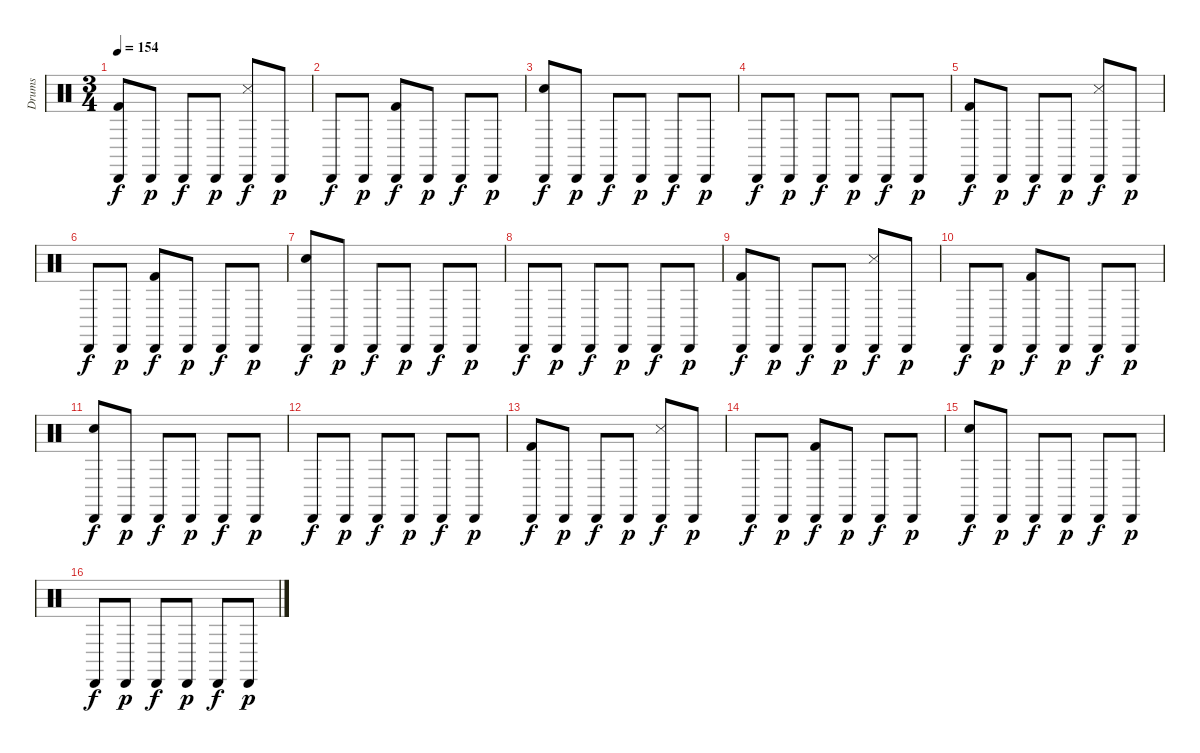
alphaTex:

\track ("Drums" "Drums") {instrument percussion}
\staff {score}
\articulation defaults
\ts (3 4)
\tempo 154
\clef neutral
\ks c
("Cabasa (hit)" "Kick (hit) 2").8{dy f} "Cabasa (hit)".8{dy p} "Cabasa (hit)".8{dy f} "Cabasa (hit)".8{dy p} ("Cabasa (hit)" "Snare (side stick) 3").8{dy f} "Cabasa (hit)".8{dy p} |
"Cabasa (hit)".8{dy f} "Cabasa (hit)".8{dy p} ("Cabasa (hit)" "Kick (hit) 2").8{dy f} "Cabasa (hit)".8{dy p} "Cabasa (hit)".8{dy f} "Cabasa (hit)".8{dy p} |
("Cabasa (hit)" "Electric Snare (hit)").8{dy f} "Cabasa (hit)".8{dy p} "Cabasa (hit)".8{dy f} "Cabasa (hit)".8{dy p} "Cabasa (hit)".8{dy f} "Cabasa (hit)".8{dy p} |
"Cabasa (hit)".8{dy f} "Cabasa (hit)".8{dy p} "Cabasa (hit)".8{dy f} "Cabasa (hit)".8{dy p} "Cabasa (hit)".8{dy f} "Cabasa (hit)".8{dy p} |
("Cabasa (hit)" "Kick (hit) 2").8{dy f} "Cabasa (hit)".8{dy p} "Cabasa (hit)".8{dy f} "Cabasa (hit)".8{dy p} ("Cabasa (hit)" "Snare (side stick) 3").8{dy f} "Cabasa (hit)".8{dy p} |
"Cabasa (hit)".8{dy f} "Cabasa (hit)".8{dy p} ("Cabasa (hit)" "Kick (hit) 2").8{dy f} "Cabasa (hit)".8{dy p} "Cabasa (hit)".8{dy f} "Cabasa (hit)".8{dy p} |
("Cabasa (hit)" "Electric Snare (hit)").8{dy f} "Cabasa (hit)".8{dy p} "Cabasa (hit)".8{dy f} "Cabasa (hit)".8{dy p} "Cabasa (hit)".8{dy f} "Cabasa (hit)".8{dy p} |
"Cabasa (hit)".8{dy f} "Cabasa (hit)".8{dy p} "Cabasa (hit)".8{dy f} "Cabasa (hit)".8{dy p} "Cabasa (hit)".8{dy f} "Cabasa (hit)".8{dy p} |
("Cabasa (hit)" "Kick (hit) 2").8{dy f} "Cabasa (hit)".8{dy p} "Cabasa (hit)".8{dy f} "Cabasa (hit)".8{dy p} ("Cabasa (hit)" "Snare (side stick) 3").8{dy f} "Cabasa (hit)".8{dy p} |
"Cabasa (hit)".8{dy f} "Cabasa (hit)".8{dy p} ("Cabasa (hit)" "Kick (hit) 2").8{dy f} "Cabasa (hit)".8{dy p} "Cabasa (hit)".8{dy f} "Cabasa (hit)".8{dy p} |
("Cabasa (hit)" "Electric Snare (hit)").8{dy f} "Cabasa (hit)".8{dy p} "Cabasa (hit)".8{dy f} "Cabasa (hit)".8{dy p} "Cabasa (hit)".8{dy f} "Cabasa (hit)".8{dy p} |
"Cabasa (hit)".8{dy f} "Cabasa (hit)".8{dy p} "Cabasa (hit)".8{dy f} "Cabasa (hit)".8{dy p} "Cabasa (hit)".8{dy f} "Cabasa (hit)".8{dy p} |
("Cabasa (hit)" "Kick (hit) 2").8{dy f} "Cabasa (hit)".8{dy p} "Cabasa (hit)".8{dy f} "Cabasa (hit)".8{dy p} ("Cabasa (hit)" "Snare (side stick) 3").8{dy f} "Cabasa (hit)".8{dy p} |
"Cabasa (hit)".8{dy f} "Cabasa (hit)".8{dy p} ("Cabasa (hit)" "Kick (hit) 2").8{dy f} "Cabasa (hit)".8{dy p} "Cabasa (hit)".8{dy f} "Cabasa (hit)".8{dy p} |
("Cabasa (hit)" "Electric Snare (hit)").8{dy f} "Cabasa (hit)".8{dy p} "Cabasa (hit)".8{dy f} "Cabasa (hit)".8{dy p} "Cabasa (hit)".8{dy f} "Cabasa (hit)".8{dy p} |
"Cabasa (hit)".8{dy f} "Cabasa (hit)".8{dy p} "Cabasa (hit)".8{dy f} "Cabasa (hit)".8{dy p} "Cabasa (hit)".8{dy f} "Cabasa (hit)".8{dy p}
